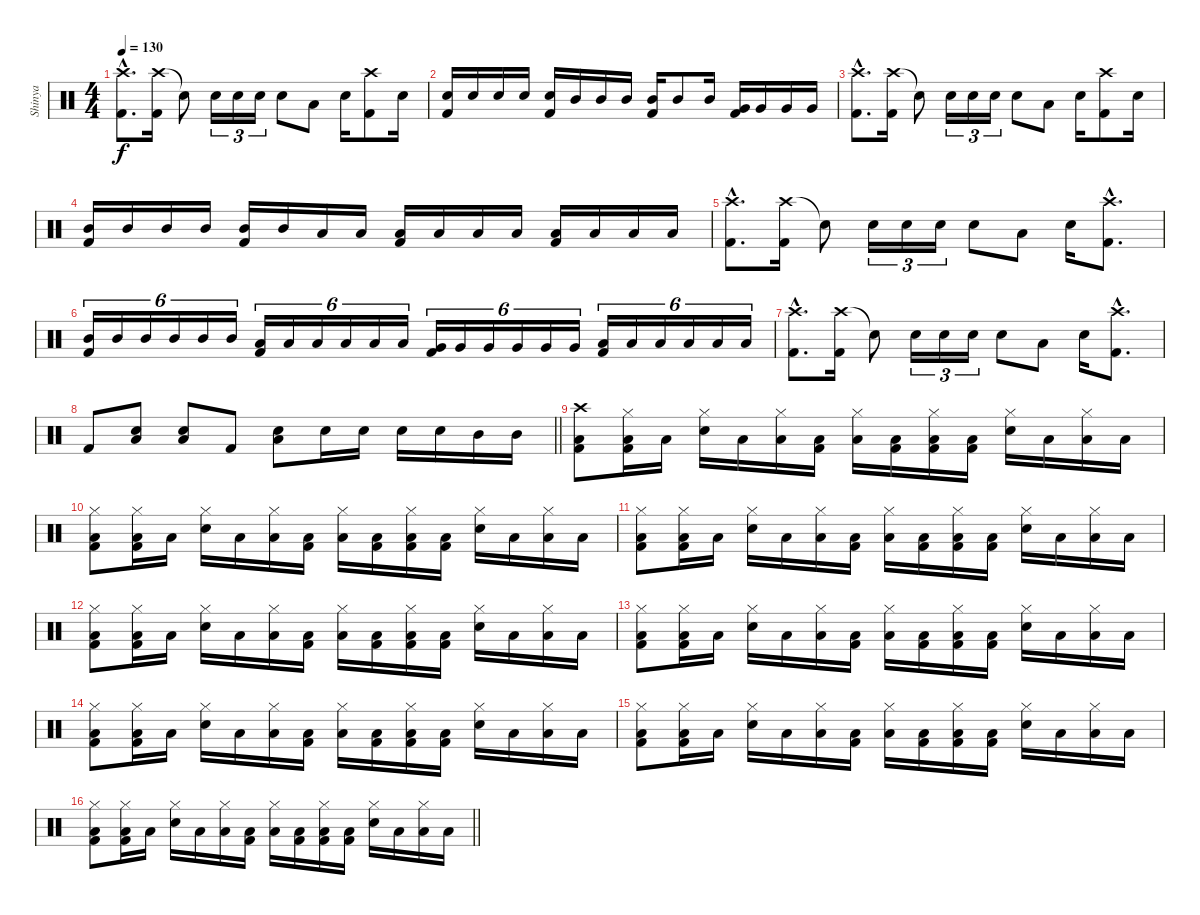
\track ("Shinya" "Shinya") {instrument percussion}
\staff {score}
\articulation defaults
\ts (4 4)
\tempo 130
\clef neutral
\ks c
("Crash high (hit)"{hac} "Kick (hit) 2"{hac}).8{d dy f} ("Crash high (hit)" "Kick (hit) 2").16 "Snare (hit)"{t}.8 "Electric Snare (hit)".16{tu (3 2)} "Electric Snare (hit)".16{tu (3 2)} "Electric Snare (hit)".16{tu (3 2)} "Electric Snare (hit)".8 "Low Tom (hit)".8 "Electric Snare (hit)".16 ("Crash high (hit)" "Kick (hit) 2").8 "Electric Snare (hit)".16 |
("Electric Snare (hit)" "Kick (hit) 2").16 "Electric Snare (hit)".16 "Electric Snare (hit)".16 "Electric Snare (hit)".16 ("Electric Snare (hit)" "Kick (hit) 2").16 "Mid Tom (hit)".16 "Mid Tom (hit)".16 "Mid Tom (hit)".16 ("Mid Tom (hit)" "Kick (hit) 2").16 "Mid Tom (hit)".8 "Mid Tom (hit)".16 ("Very Low Tom (hit)" "Kick (hit) 2").16 "Very Low Tom (hit)".16 "Very Low Tom (hit)".16 "Very Low Tom (hit)".16 |
("Crash high (hit)"{hac} "Kick (hit) 2"{hac}).8{d} ("Crash high (hit)" "Kick (hit) 2").16 "Snare (hit)"{t}.8 "Electric Snare (hit)".16{tu (3 2)} "Electric Snare (hit)".16{tu (3 2)} "Electric Snare (hit)".16{tu (3 2)} "Electric Snare (hit)".8 "Low Tom (hit)".8 "Electric Snare (hit)".16 ("Crash high (hit)" "Kick (hit) 2").8 "Electric Snare (hit)".16 |
("Mid Tom (hit)" "Kick (hit) 2").16 "Mid Tom (hit)".16 "Mid Tom (hit)".16 "Mid Tom (hit)".16 ("Mid Tom (hit)" "Kick (hit) 2").16 "Mid Tom (hit)".16 "Low Tom (hit)".16 "Low Tom (hit)".16 ("Low Tom (hit)" "Kick (hit) 2").16 "Low Tom (hit)".16 "Low Floor Tom (hit)".16 "Low Floor Tom (hit)".16 ("Low Floor Tom (hit)" "Kick (hit) 2").16 "Low Floor Tom (hit)".16 "Low Floor Tom (hit)".16 "Low Floor Tom (hit)".16 |
("Crash high (hit)"{hac} "Kick (hit) 2"{hac}).8{d} ("Crash high (hit)" "Kick (hit) 2").16 "Snare (hit)"{t}.8 "Electric Snare (hit)".16{tu (3 2)} "Electric Snare (hit)".16{tu (3 2)} "Electric Snare (hit)".16{tu (3 2)} "Electric Snare (hit)".8 "Low Tom (hit)".8 "Electric Snare (hit)".16 ("Crash high (hit)"{hac} "Kick (hit) 2"{hac}).8{d} |
("Mid Tom (hit)" "Kick (hit) 2").16{tu (6 4)} "Mid Tom (hit)".16{tu (6 4)} "Mid Tom (hit)".16{tu (6 4)} "Mid Tom (hit)".16{tu (6 4)} "Mid Tom (hit)".16{tu (6 4)} "Mid Tom (hit)".16{tu (6 4)} ("Low Tom (hit)" "Kick (hit) 2").16{tu (6 4)} "Low Tom (hit)".16{tu (6 4)} "Low Tom (hit)".16{tu (6 4)} "Low Tom (hit)".16{tu (6 4)} "Low Tom (hit)".16{tu (6 4)} "Low Tom (hit)".16{tu (6 4)} ("Very Low Tom (hit)" "Kick (hit) 2").16{tu (6 4)} "Very Low Tom (hit)".16{tu (6 4)} "Very Low Tom (hit)".16{tu (6 4)} "Very Low Tom (hit)".16{tu (6 4)} "Very Low Tom (hit)".16{tu (6 4)} "Very Low Tom (hit)".16{tu (6 4)} ("Low Floor Tom (hit)" "Kick (hit) 2").16{tu (6 4)} "Low Floor Tom (hit)".16{tu (6 4)} "Low Floor Tom (hit)".16{tu (6 4)} "Low Floor Tom (hit)".16{tu (6 4)} "Low Floor Tom (hit)".16{tu (6 4)} "Low Floor Tom (hit)".16{tu (6 4)} |
("Crash high (hit)"{hac} "Kick (hit) 2"{hac}).8{d} ("Crash high (hit)" "Kick (hit) 2").16 "Snare (hit)"{t}.8 "Electric Snare (hit)".16{tu (3 2)} "Electric Snare (hit)".16{tu (3 2)} "Electric Snare (hit)".16{tu (3 2)} "Electric Snare (hit)".8 "Low Tom (hit)".8 "Electric Snare (hit)".16 ("Crash high (hit)"{hac} "Kick (hit) 2"{hac}).8{d} |
\barLineRight lightlight "Kick (hit) 2".8
("Electric Snare (hit)" "Low Floor Tom (hit)").8 ("Electric Snare (hit)" "Low Floor Tom (hit)").8 "Kick (hit) 2".8 ("Electric Snare (hit)" "Low Floor Tom (hit)").8 "Electric Snare (hit)".16 "Electric Snare (hit)".16 "Electric Snare (hit)".16 "Electric Snare (hit)".16 "Mid Tom (hit)".16 "Mid Tom (hit)".16 |
("Crash high (hit)" "Low Floor Tom (hit)" "Kick (hit) 2").8 ("Hi-Hat (closed)" "Low Floor Tom (hit)" "Kick (hit) 2").16 "Low Floor Tom (hit)".16 ("Hi-Hat (closed)" "Electric Snare (hit)").16 "Low Floor Tom (hit)".16 ("Hi-Hat (closed)" "Low Floor Tom (hit)").16 ("Low Tom (hit)" "Kick (hit) 2").16 ("Hi-Hat (closed)" "Low Floor Tom (hit)").16 ("Low Tom (hit)" "Kick (hit) 2").16 ("Hi-Hat (closed)" "Low Tom (hit)" "Kick (hit) 2").16 ("Low Tom (hit)" "Kick (hit) 2").16 ("Hi-Hat (closed)" "Electric Snare (hit)").16 "Low Tom (hit)".16 ("Hi-Hat (closed)" "Low Floor Tom (hit)").16 "Low Tom (hit)".16 |
("Hi-Hat (closed)" "Low Floor Tom (hit)" "Kick (hit) 2").8 ("Hi-Hat (closed)" "Low Floor Tom (hit)" "Kick (hit) 2").16 "Low Floor Tom (hit)".16 ("Hi-Hat (closed)" "Electric Snare (hit)").16 "Low Floor Tom (hit)".16 ("Hi-Hat (closed)" "Low Floor Tom (hit)").16 ("Low Tom (hit)" "Kick (hit) 2").16 ("Hi-Hat (closed)" "Low Floor Tom (hit)").16 ("Low Tom (hit)" "Kick (hit) 2").16 ("Hi-Hat (closed)" "Low Tom (hit)" "Kick (hit) 2").16 ("Low Tom (hit)" "Kick (hit) 2").16 ("Hi-Hat (closed)" "Electric Snare (hit)").16 "Low Tom (hit)".16 ("Hi-Hat (closed)" "Low Floor Tom (hit)").16 "Low Tom (hit)".16 |
("Hi-Hat (closed)" "Low Floor Tom (hit)" "Kick (hit) 2").8 ("Hi-Hat (closed)" "Low Floor Tom (hit)" "Kick (hit) 2").16 "Low Floor Tom (hit)".16 ("Hi-Hat (closed)" "Electric Snare (hit)").16 "Low Floor Tom (hit)".16 ("Hi-Hat (closed)" "Low Floor Tom (hit)").16 ("Low Tom (hit)" "Kick (hit) 2").16 ("Hi-Hat (closed)" "Low Floor Tom (hit)").16 ("Low Tom (hit)" "Kick (hit) 2").16 ("Hi-Hat (closed)" "Low Tom (hit)" "Kick (hit) 2").16 ("Low Tom (hit)" "Kick (hit) 2").16 ("Hi-Hat (closed)" "Electric Snare (hit)").16 "Low Tom (hit)".16 ("Hi-Hat (closed)" "Low Floor Tom (hit)").16 "Low Tom (hit)".16 |
("Hi-Hat (closed)" "Low Floor Tom (hit)" "Kick (hit) 2").8 ("Hi-Hat (closed)" "Low Floor Tom (hit)" "Kick (hit) 2").16 "Low Floor Tom (hit)".16 ("Hi-Hat (closed)" "Electric Snare (hit)").16 "Low Floor Tom (hit)".16 ("Hi-Hat (closed)" "Low Floor Tom (hit)").16 ("Low Tom (hit)" "Kick (hit) 2").16 ("Hi-Hat (closed)" "Low Floor Tom (hit)").16 ("Low Tom (hit)" "Kick (hit) 2").16 ("Hi-Hat (closed)" "Low Tom (hit)" "Kick (hit) 2").16 ("Low Tom (hit)" "Kick (hit) 2").16 ("Hi-Hat (closed)" "Electric Snare (hit)").16 "Low Tom (hit)".16 ("Hi-Hat (closed)" "Low Floor Tom (hit)").16 "Low Tom (hit)".16 |
("Hi-Hat (closed)" "Low Floor Tom (hit)" "Kick (hit) 2").8 ("Hi-Hat (closed)" "Low Floor Tom (hit)" "Kick (hit) 2").16 "Low Floor Tom (hit)".16 ("Hi-Hat (closed)" "Electric Snare (hit)").16 "Low Floor Tom (hit)".16 ("Hi-Hat (closed)" "Low Floor Tom (hit)").16 ("Low Tom (hit)" "Kick (hit) 2").16 ("Hi-Hat (closed)" "Low Floor Tom (hit)").16 ("Low Tom (hit)" "Kick (hit) 2").16 ("Hi-Hat (closed)" "Low Tom (hit)" "Kick (hit) 2").16 ("Low Tom (hit)" "Kick (hit) 2").16 ("Hi-Hat (closed)" "Electric Snare (hit)").16 "Low Tom (hit)".16 ("Hi-Hat (closed)" "Low Floor Tom (hit)").16 "Low Tom (hit)".16 |
("Hi-Hat (closed)" "Low Floor Tom (hit)" "Kick (hit) 2").8 ("Hi-Hat (closed)" "Low Floor Tom (hit)" "Kick (hit) 2").16 "Low Floor Tom (hit)".16 ("Hi-Hat (closed)" "Electric Snare (hit)").16 "Low Floor Tom (hit)".16 ("Hi-Hat (closed)" "Low Floor Tom (hit)").16 ("Low Tom (hit)" "Kick (hit) 2").16 ("Hi-Hat (closed)" "Low Floor Tom (hit)").16 ("Low Tom (hit)" "Kick (hit) 2").16 ("Hi-Hat (closed)" "Low Tom (hit)" "Kick (hit) 2").16 ("Low Tom (hit)" "Kick (hit) 2").16 ("Hi-Hat (closed)" "Electric Snare (hit)").16 "Low Tom (hit)".16 ("Hi-Hat (closed)" "Low Floor Tom (hit)").16 "Low Tom (hit)".16 |
("Hi-Hat (closed)" "Low Floor Tom (hit)" "Kick (hit) 2").8 ("Hi-Hat (closed)" "Low Floor Tom (hit)" "Kick (hit) 2").16 "Low Floor Tom (hit)".16 ("Hi-Hat (closed)" "Electric Snare (hit)").16 "Low Floor Tom (hit)".16 ("Hi-Hat (closed)" "Low Floor Tom (hit)").16 ("Low Tom (hit)" "Kick (hit) 2").16 ("Hi-Hat (closed)" "Low Floor Tom (hit)").16 ("Low Tom (hit)" "Kick (hit) 2").16 ("Hi-Hat (closed)" "Low Tom (hit)" "Kick (hit) 2").16 ("Low Tom (hit)" "Kick (hit) 2").16 ("Hi-Hat (closed)" "Electric Snare (hit)").16 "Low Tom (hit)".16 ("Hi-Hat (closed)" "Low Floor Tom (hit)").16 "Low Tom (hit)".16 |
\barLineRight lightlight
("Hi-Hat (closed)" "Low Floor Tom (hit)" "Kick (hit) 2").8 ("Hi-Hat (closed)" "Low Floor Tom (hit)" "Kick (hit) 2").16 "Low Floor Tom (hit)".16 ("Hi-Hat (closed)" "Electric Snare (hit)").16 "Low Floor Tom (hit)".16 ("Hi-Hat (closed)" "Low Floor Tom (hit)").16 ("Low Tom (hit)" "Kick (hit) 2").16 ("Hi-Hat (closed)" "Low Floor Tom (hit)").16 ("Low Tom (hit)" "Kick (hit) 2").16 ("Hi-Hat (closed)" "Low Tom (hit)" "Kick (hit) 2").16 ("Low Tom (hit)" "Kick (hit) 2").16 ("Hi-Hat (closed)" "Electric Snare (hit)").16 "Low Tom (hit)".16 ("Hi-Hat (closed)" "Low Floor Tom (hit)").16 "Low Tom (hit)".16
